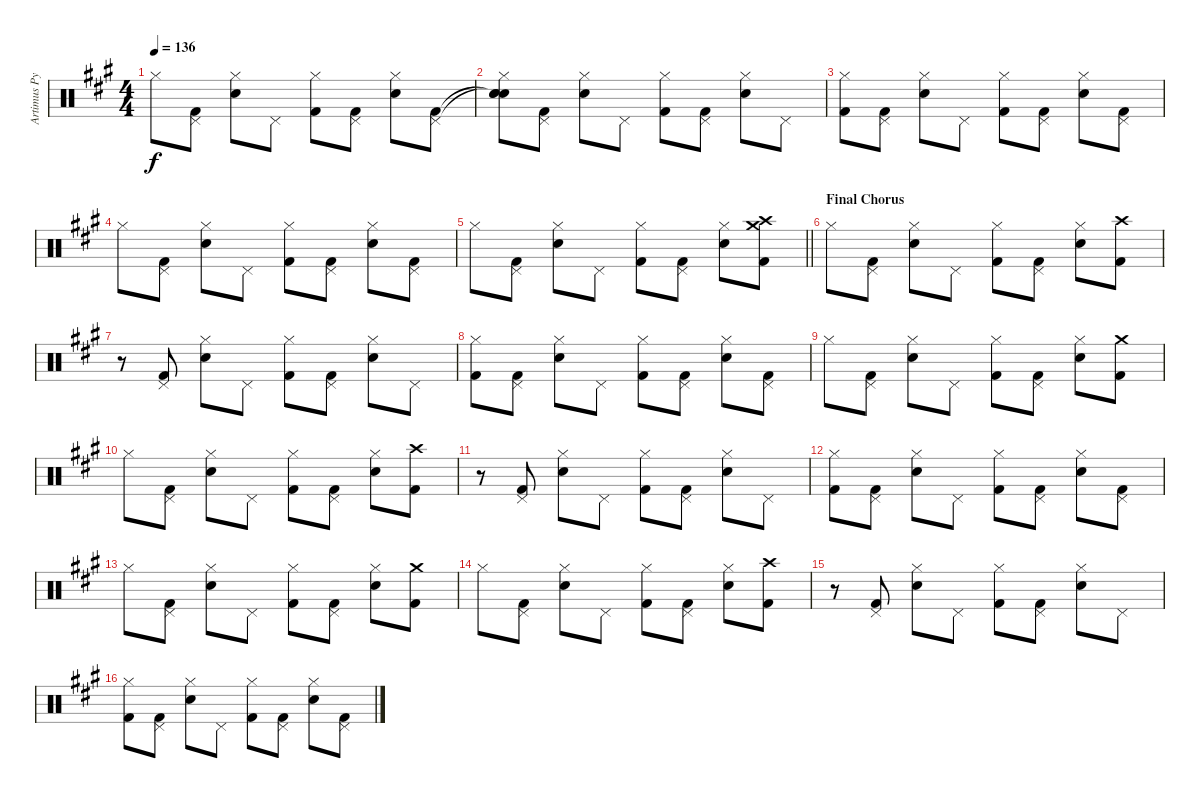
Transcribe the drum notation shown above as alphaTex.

\track ("Artimus Pyle - Drums" "Artimus Py") {instrument percussion}
\staff {score}
\articulation defaults
\ts (4 4)
\tempo 136
\clef neutral
\ks a "Hi-Hat (closed)".8{dy f}
("Pedal Hi-Hat (hit)" "Kick (hit) 2").8 ("Snare (hit) 2" "Hi-Hat (closed)").8 "Pedal Hi-Hat (hit)".8 ("Hi-Hat (closed)" "Kick (hit) 2").8 ("Pedal Hi-Hat (hit)" "Kick (hit) 2").8 ("Snare (hit) 2" "Hi-Hat (closed)").8 ("Pedal Hi-Hat (hit)" "Kick (hit) 2").8 |
("Snare (hit)"{t} "Snare (hit)"{t} "Hi-Hat (closed)" "Snare (hit)").8 ("Pedal Hi-Hat (hit)" "Kick (hit) 2").8 ("Snare (hit) 2" "Hi-Hat (closed)").8 "Pedal Hi-Hat (hit)".8 ("Hi-Hat (closed)" "Kick (hit) 2").8 ("Pedal Hi-Hat (hit)" "Kick (hit) 2").8 ("Snare (hit) 2" "Hi-Hat (closed)").8 "Pedal Hi-Hat (hit)".8 |
("Hi-Hat (closed)" "Kick (hit) 2").8 ("Pedal Hi-Hat (hit)" "Kick (hit) 2").8 ("Snare (hit) 2" "Hi-Hat (closed)").8 "Pedal Hi-Hat (hit)".8 ("Hi-Hat (closed)" "Kick (hit) 2").8 ("Pedal Hi-Hat (hit)" "Kick (hit) 2").8 ("Snare (hit) 2" "Hi-Hat (closed)").8 ("Pedal Hi-Hat (hit)" "Kick (hit) 2").8 |
"Hi-Hat (closed)".8 ("Pedal Hi-Hat (hit)" "Kick (hit) 2").8 ("Snare (hit) 2" "Hi-Hat (closed)").8 "Pedal Hi-Hat (hit)".8 ("Hi-Hat (closed)" "Kick (hit) 2").8 ("Pedal Hi-Hat (hit)" "Kick (hit) 2").8 ("Snare (hit) 2" "Hi-Hat (closed)").8 ("Pedal Hi-Hat (hit)" "Kick (hit) 2").8 |
\barLineRight lightlight "Hi-Hat (closed)".8
("Pedal Hi-Hat (hit)" "Kick (hit) 2").8 ("Snare (hit) 2" "Hi-Hat (closed)").8 "Pedal Hi-Hat (hit)".8 ("Hi-Hat (closed)" "Kick (hit) 2").8 ("Pedal Hi-Hat (hit)" "Kick (hit) 2").8 ("Snare (hit) 2" "Hi-Hat (closed)").8 ("Crash medium (hit)" "Crash high (hit)" "Kick (hit) 2").8 |
\section ("" "Final Chorus")
"Hi-Hat (closed)".8 ("Pedal Hi-Hat (hit)" "Kick (hit) 2").8 ("Snare (hit) 2" "Hi-Hat (closed)").8 "Pedal Hi-Hat (hit)".8 ("Hi-Hat (closed)" "Kick (hit) 2").8 ("Pedal Hi-Hat (hit)" "Kick (hit) 2").8 ("Snare (hit) 2" "Hi-Hat (closed)").8 ("Crash high (hit)" "Kick (hit) 2").8 |
r.8 ("Pedal Hi-Hat (hit)" "Kick (hit) 2").8 ("Snare (hit) 2" "Hi-Hat (closed)").8 "Pedal Hi-Hat (hit)".8 ("Hi-Hat (closed)" "Kick (hit) 2").8 ("Pedal Hi-Hat (hit)" "Kick (hit) 2").8 ("Snare (hit) 2" "Hi-Hat (closed)").8 "Pedal Hi-Hat (hit)".8 |
("Hi-Hat (closed)" "Kick (hit) 2").8 ("Pedal Hi-Hat (hit)" "Kick (hit) 2").8 ("Snare (hit) 2" "Hi-Hat (closed)").8 "Pedal Hi-Hat (hit)".8 ("Hi-Hat (closed)" "Kick (hit) 2").8 ("Pedal Hi-Hat (hit)" "Kick (hit) 2").8 ("Snare (hit) 2" "Hi-Hat (closed)").8 ("Pedal Hi-Hat (hit)" "Kick (hit) 2").8 |
"Hi-Hat (closed)".8 ("Pedal Hi-Hat (hit)" "Kick (hit) 2").8 ("Snare (hit) 2" "Hi-Hat (closed)").8 "Pedal Hi-Hat (hit)".8 ("Hi-Hat (closed)" "Kick (hit) 2").8 ("Pedal Hi-Hat (hit)" "Kick (hit) 2").8 ("Snare (hit) 2" "Hi-Hat (closed)").8 ("Crash medium (hit)" "Kick (hit) 2").8 |
"Hi-Hat (closed)".8 ("Pedal Hi-Hat (hit)" "Kick (hit) 2").8 ("Snare (hit) 2" "Hi-Hat (closed)").8 "Pedal Hi-Hat (hit)".8 ("Hi-Hat (closed)" "Kick (hit) 2").8 ("Pedal Hi-Hat (hit)" "Kick (hit) 2").8 ("Snare (hit) 2" "Hi-Hat (closed)").8 ("Crash high (hit)" "Kick (hit) 2").8 |
r.8 ("Pedal Hi-Hat (hit)" "Kick (hit) 2").8 ("Snare (hit) 2" "Hi-Hat (closed)").8 "Pedal Hi-Hat (hit)".8 ("Hi-Hat (closed)" "Kick (hit) 2").8 ("Pedal Hi-Hat (hit)" "Kick (hit) 2").8 ("Snare (hit) 2" "Hi-Hat (closed)").8 "Pedal Hi-Hat (hit)".8 |
("Hi-Hat (closed)" "Kick (hit) 2").8 ("Pedal Hi-Hat (hit)" "Kick (hit) 2").8 ("Snare (hit) 2" "Hi-Hat (closed)").8 "Pedal Hi-Hat (hit)".8 ("Hi-Hat (closed)" "Kick (hit) 2").8 ("Pedal Hi-Hat (hit)" "Kick (hit) 2").8 ("Snare (hit) 2" "Hi-Hat (closed)").8 ("Pedal Hi-Hat (hit)" "Kick (hit) 2").8 |
"Hi-Hat (closed)".8 ("Pedal Hi-Hat (hit)" "Kick (hit) 2").8 ("Snare (hit) 2" "Hi-Hat (closed)").8 "Pedal Hi-Hat (hit)".8 ("Hi-Hat (closed)" "Kick (hit) 2").8 ("Pedal Hi-Hat (hit)" "Kick (hit) 2").8 ("Snare (hit) 2" "Hi-Hat (closed)").8 ("Crash medium (hit)" "Kick (hit) 2").8 |
"Hi-Hat (closed)".8 ("Pedal Hi-Hat (hit)" "Kick (hit) 2").8 ("Snare (hit) 2" "Hi-Hat (closed)").8 "Pedal Hi-Hat (hit)".8 ("Hi-Hat (closed)" "Kick (hit) 2").8 ("Pedal Hi-Hat (hit)" "Kick (hit) 2").8 ("Snare (hit) 2" "Hi-Hat (closed)").8 ("Crash high (hit)" "Kick (hit) 2").8 |
r.8 ("Pedal Hi-Hat (hit)" "Kick (hit) 2").8 ("Snare (hit) 2" "Hi-Hat (closed)").8 "Pedal Hi-Hat (hit)".8 ("Hi-Hat (closed)" "Kick (hit) 2").8 ("Pedal Hi-Hat (hit)" "Kick (hit) 2").8 ("Snare (hit) 2" "Hi-Hat (closed)").8 "Pedal Hi-Hat (hit)".8 |
("Hi-Hat (closed)" "Kick (hit) 2").8 ("Pedal Hi-Hat (hit)" "Kick (hit) 2").8 ("Snare (hit) 2" "Hi-Hat (closed)").8 "Pedal Hi-Hat (hit)".8 ("Hi-Hat (closed)" "Kick (hit) 2").8 ("Pedal Hi-Hat (hit)" "Kick (hit) 2").8 ("Snare (hit) 2" "Hi-Hat (closed)").8 ("Pedal Hi-Hat (hit)" "Kick (hit) 2").8
